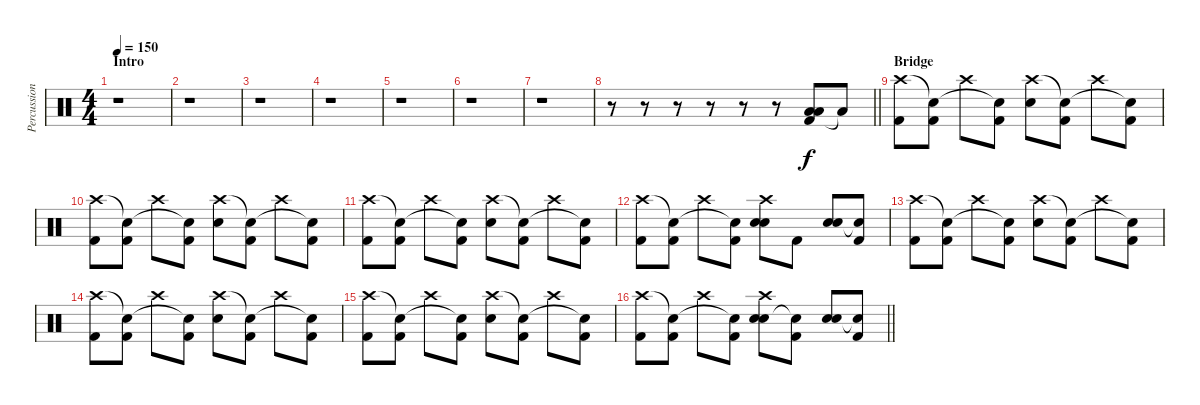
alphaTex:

\track ("Percussion" "Percussion") {instrument percussion}
\staff {score}
\articulation defaults
\ts (4 4)
\section ("" "Intro")
\tempo 150
\clef neutral
\ks c
r.1{dy f} |
r.1 |
r.1 |
r.1 |
r.1 |
r.1 |
r.1 |
\barLineRight lightlight
r.8 r.8 r.8 r.8 r.8 r.8 ("Kick (hit) 2" "Low Floor Tom (hit)" "Low Tom (hit)").8 "Low Floor Tom (hit)"{t}.8 |
\section ("" "Bridge")
("Kick (hit) 2" "Crash high (hit)").8 ("Kick (hit) 2" "Snare (hit)"{t}).8 "Crash high (hit)".8 ("Kick (hit) 2" "Snare (hit)"{t}).8 ("Snare (hit) 2" "Crash high (hit)").8 ("Kick (hit) 2" "Snare (hit)"{t}).8 "Crash high (hit)".8 ("Kick (hit) 2" "Snare (hit)"{t}).8 |
("Kick (hit) 2" "Crash high (hit)").8 ("Kick (hit) 2" "Snare (hit)"{t}).8 "Crash high (hit)".8 ("Kick (hit) 2" "Snare (hit)"{t}).8 ("Snare (hit) 2" "Crash high (hit)").8 ("Kick (hit) 2" "Snare (hit)"{t}).8 "Crash high (hit)".8 ("Kick (hit) 2" "Snare (hit)"{t}).8 |
("Kick (hit) 2" "Crash high (hit)").8 ("Kick (hit) 2" "Snare (hit)"{t}).8 "Crash high (hit)".8 ("Kick (hit) 2" "Snare (hit)"{t}).8 ("Snare (hit) 2" "Crash high (hit)").8 ("Kick (hit) 2" "Snare (hit)"{t}).8 "Crash high (hit)".8 ("Kick (hit) 2" "Snare (hit)"{t}).8 |
("Kick (hit) 2" "Crash high (hit)").8 ("Kick (hit) 2" "Snare (hit)"{t}).8 "Crash high (hit)".8 ("Kick (hit) 2" "Snare (hit)"{t}).8 ("Snare (hit) 2" "Electric Snare (hit)" "Crash high (hit)").8 "Kick (hit) 2".8 ("Snare (hit) 2" "Electric Snare (hit)").8 ("Kick (hit) 2" "Snare (hit)"{t}).8 |
("Kick (hit) 2" "Crash high (hit)").8 ("Kick (hit) 2" "Snare (hit)"{t}).8 "Crash high (hit)".8 ("Kick (hit) 2" "Snare (hit)"{t}).8 ("Snare (hit) 2" "Crash high (hit)").8 ("Kick (hit) 2" "Snare (hit)"{t}).8 "Crash high (hit)".8 ("Kick (hit) 2" "Snare (hit)"{t}).8 |
("Kick (hit) 2" "Crash high (hit)").8 ("Kick (hit) 2" "Snare (hit)"{t}).8 "Crash high (hit)".8 ("Kick (hit) 2" "Snare (hit)"{t}).8 ("Snare (hit) 2" "Crash high (hit)").8 ("Kick (hit) 2" "Snare (hit)"{t}).8 "Crash high (hit)".8 ("Kick (hit) 2" "Snare (hit)"{t}).8 |
("Kick (hit) 2" "Crash high (hit)").8 ("Kick (hit) 2" "Snare (hit)"{t}).8 "Crash high (hit)".8 ("Kick (hit) 2" "Snare (hit)"{t}).8 ("Snare (hit) 2" "Crash high (hit)").8 ("Kick (hit) 2" "Snare (hit)"{t}).8 "Crash high (hit)".8 ("Kick (hit) 2" "Snare (hit)"{t}).8 |
\barLineRight lightlight
("Kick (hit) 2" "Crash high (hit)").8 ("Kick (hit) 2" "Snare (hit)"{t}).8 "Crash high (hit)".8 ("Kick (hit) 2" "Snare (hit)"{t}).8 ("Snare (hit) 2" "Electric Snare (hit)" "Crash high (hit)").8 ("Kick (hit) 2" "Snare (hit)"{t}).8 ("Snare (hit) 2" "Electric Snare (hit)").8 ("Kick (hit) 2" "Snare (hit)"{t}).8
